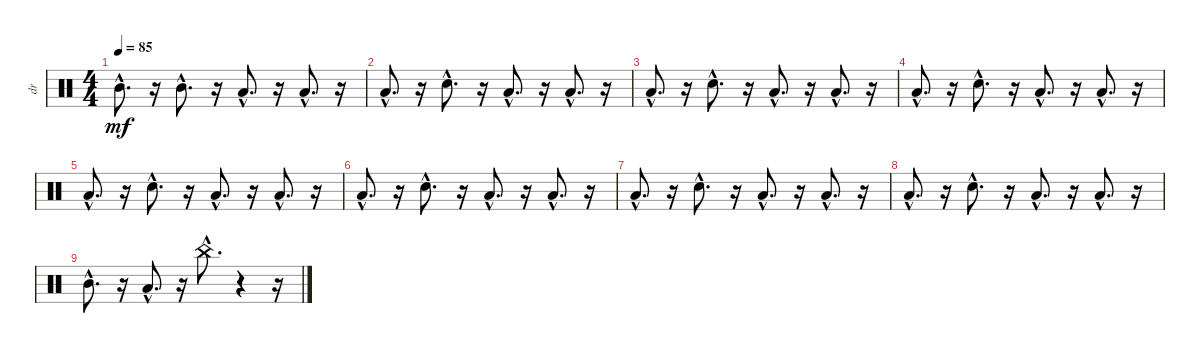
\track ("dr" "dr") {instrument percussion}
\staff {score}
\articulation defaults
\ts (4 4)
\tempo 85
\clef neutral
\ks c "Mid Tom (hit)"{hac}.8{d dy mf}
r.16 "Mid Tom (hit)"{hac}.8{d} r.16 "Low Tom (hit)"{hac}.8{d} r.16 "Low Tom (hit)"{hac}.8{d} r.16 |
"Low Floor Tom (hit)"{hac}.8{d} r.16 "Electric Snare (hit)"{hac}.8{d} r.16 "Low Floor Tom (hit)"{hac}.8{d} r.16 "Low Floor Tom (hit)"{hac}.8{d} r.16 |
"Low Floor Tom (hit)"{hac}.8{d} r.16 "Electric Snare (hit)"{hac}.8{d} r.16 "Low Floor Tom (hit)"{hac}.8{d} r.16 "Low Floor Tom (hit)"{hac}.8{d} r.16 |
"Low Floor Tom (hit)"{hac}.8{d} r.16 "Electric Snare (hit)"{hac}.8{d} r.16 "Low Floor Tom (hit)"{hac}.8{d} r.16 "Low Floor Tom (hit)"{hac}.8{d} r.16 |
"Low Floor Tom (hit)"{hac}.8{d} r.16 "Electric Snare (hit)"{hac}.8{d} r.16 "Low Floor Tom (hit)"{hac}.8{d} r.16 "Low Floor Tom (hit)"{hac}.8{d} r.16 |
"Low Floor Tom (hit)"{hac}.8{d} r.16 "Electric Snare (hit)"{hac}.8{d} r.16 "Low Floor Tom (hit)"{hac}.8{d} r.16 "Low Floor Tom (hit)"{hac}.8{d} r.16 |
"Low Floor Tom (hit)"{hac}.8{d} r.16 "Electric Snare (hit)"{hac}.8{d} r.16 "Low Floor Tom (hit)"{hac}.8{d} r.16 "Low Floor Tom (hit)"{hac}.8{d} r.16 |
"Low Floor Tom (hit)"{hac}.8{d} r.16 "Electric Snare (hit)"{hac}.8{d} r.16 "Low Floor Tom (hit)"{hac}.8{d} r.16 "Low Floor Tom (hit)"{hac}.8{d} r.16 |
"Mid Tom (hit)"{hac}.8{d} r.16 "Low Tom (hit)"{hac}.8{d} r.16 "China (hit)"{hac}.8{d} r.4 r.16
